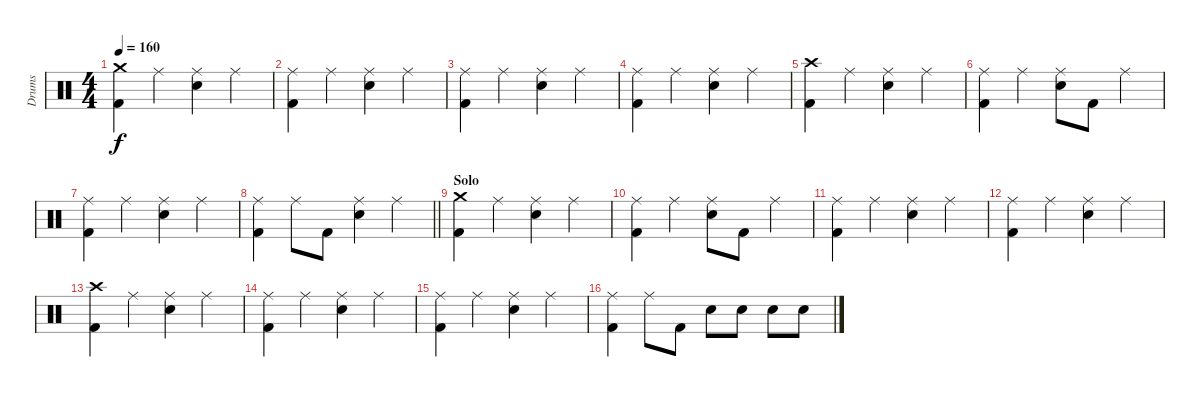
\track ("Drums" "Drums") {instrument percussion}
\staff {score}
\articulation defaults
\ts (4 4)
\tempo 160
\clef neutral
\ks aminor
("Crash medium (hit)" "Kick (hit) 2").4{dy f} "Ride (middle)".4 ("Ride (middle)" "Electric Snare (hit)").4 "Ride (middle)".4 |
("Ride (middle)" "Kick (hit) 2").4 "Ride (middle)".4 ("Ride (middle)" "Electric Snare (hit)").4 "Ride (middle)".4 |
("Ride (middle)" "Kick (hit) 2").4 "Ride (middle)".4 ("Ride (middle)" "Electric Snare (hit)").4 "Ride (middle)".4 |
("Ride (middle)" "Kick (hit) 2").4 "Ride (middle)".4 ("Ride (middle)" "Electric Snare (hit)").4 "Ride (middle)".4 |
("Crash high (hit)" "Kick (hit) 2").4 "Ride (middle)".4 ("Ride (middle)" "Electric Snare (hit)").4 "Ride (middle)".4 |
("Ride (middle)" "Kick (hit) 2").4 "Ride (middle)".4 ("Ride (middle)" "Electric Snare (hit)").8 "Kick (hit) 2".8 "Ride (middle)".4 |
("Ride (middle)" "Kick (hit) 2").4 "Ride (middle)".4 ("Ride (middle)" "Electric Snare (hit)").4 "Ride (middle)".4 |
\barLineRight lightlight
("Ride (middle)" "Kick (hit) 2").4 "Ride (middle)".8 "Kick (hit) 2".8 ("Ride (middle)" "Electric Snare (hit)").4 "Ride (middle)".4 |
\section ("" "Solo")
("Crash medium (hit)" "Kick (hit) 2").4 "Ride (middle)".4 ("Ride (middle)" "Electric Snare (hit)").4 "Ride (middle)".4 |
("Ride (middle)" "Kick (hit) 2").4 "Ride (middle)".4 ("Ride (middle)" "Electric Snare (hit)").8 "Kick (hit) 2".8 "Ride (middle)".4 |
("Ride (middle)" "Kick (hit) 2").4 "Ride (middle)".4 ("Ride (middle)" "Electric Snare (hit)").4 "Ride (middle)".4 |
("Ride (middle)" "Kick (hit) 2").4 "Ride (middle)".4 ("Ride (middle)" "Electric Snare (hit)").4 "Ride (middle)".4 |
("Crash high (hit)" "Kick (hit) 2").4 "Ride (middle)".4 ("Ride (middle)" "Electric Snare (hit)").4 "Ride (middle)".4 |
("Ride (middle)" "Kick (hit) 2").4 "Ride (middle)".4 ("Ride (middle)" "Electric Snare (hit)").4 "Ride (middle)".4 |
("Ride (middle)" "Kick (hit) 2").4 "Ride (middle)".4 ("Ride (middle)" "Electric Snare (hit)").4 "Ride (middle)".4 |
("Ride (middle)" "Kick (hit) 2").4 "Ride (middle)".8 "Kick (hit) 2".8 "Electric Snare (hit)".8 "Snare (hit) 2".8 "Electric Snare (hit)".8 "Snare (hit) 2".8
